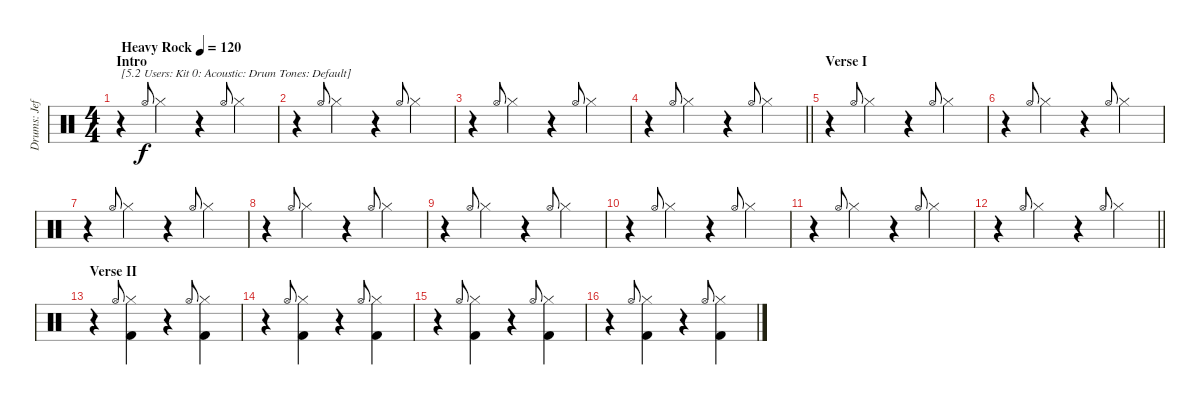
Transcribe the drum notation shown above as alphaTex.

\track ("Drums: Jeff" "Drums: Jef") {instrument percussion}
\staff {score}
\articulation defaults
\ts (4 4)
\section ("" "Intro")
\tempo (120 "Heavy Rock")
\clef neutral
\ks c
r.4{txt "[5.2 Users: Kit 0: Acoustic: Drum Tones: Default]" dy f} "Hi-Hat (open)".8{gr onbeat} "Hi-Hat (closed)".4 r.4 "Hi-Hat (open)".8{gr onbeat} "Hi-Hat (closed)".4 |
r.4 "Hi-Hat (open)".8{gr onbeat} "Hi-Hat (closed)".4 r.4 "Hi-Hat (open)".8{gr onbeat} "Hi-Hat (closed)".4 |
r.4 "Hi-Hat (open)".8{gr onbeat} "Hi-Hat (closed)".4 r.4 "Hi-Hat (open)".8{gr onbeat} "Hi-Hat (closed)".4 |
\barLineRight lightlight
r.4 "Hi-Hat (open)".8{gr onbeat} "Hi-Hat (closed)".4 r.4 "Hi-Hat (open)".8{gr onbeat} "Hi-Hat (closed)".4 |
\section ("" "Verse I")
r.4 "Hi-Hat (open)".8{gr onbeat} "Hi-Hat (closed)".4 r.4 "Hi-Hat (open)".8{gr onbeat} "Hi-Hat (closed)".4 |
r.4 "Hi-Hat (open)".8{gr onbeat} "Hi-Hat (closed)".4 r.4 "Hi-Hat (open)".8{gr onbeat} "Hi-Hat (closed)".4 |
r.4 "Hi-Hat (open)".8{gr onbeat} "Hi-Hat (closed)".4 r.4 "Hi-Hat (open)".8{gr onbeat} "Hi-Hat (closed)".4 |
r.4 "Hi-Hat (open)".8{gr onbeat} "Hi-Hat (closed)".4 r.4 "Hi-Hat (open)".8{gr onbeat} "Hi-Hat (closed)".4 |
r.4 "Hi-Hat (open)".8{gr onbeat} "Hi-Hat (closed)".4 r.4 "Hi-Hat (open)".8{gr onbeat} "Hi-Hat (closed)".4 |
r.4 "Hi-Hat (open)".8{gr onbeat} "Hi-Hat (closed)".4 r.4 "Hi-Hat (open)".8{gr onbeat} "Hi-Hat (closed)".4 |
r.4 "Hi-Hat (open)".8{gr onbeat} "Hi-Hat (closed)".4 r.4 "Hi-Hat (open)".8{gr onbeat} "Hi-Hat (closed)".4 |
\barLineRight lightlight
r.4 "Hi-Hat (open)".8{gr onbeat} "Hi-Hat (closed)".4 r.4 "Hi-Hat (open)".8{gr onbeat} "Hi-Hat (closed)".4 |
\section ("" "Verse II")
r.4 "Hi-Hat (open)".8{gr onbeat} ("Hi-Hat (closed)" "Kick (hit) 2").4 r.4 "Hi-Hat (open)".8{gr onbeat} ("Hi-Hat (closed)" "Kick (hit) 2").4 |
r.4 "Hi-Hat (open)".8{gr onbeat} ("Hi-Hat (closed)" "Kick (hit) 2").4 r.4 "Hi-Hat (open)".8{gr onbeat} ("Hi-Hat (closed)" "Kick (hit) 2").4 |
r.4 "Hi-Hat (open)".8{gr onbeat} ("Hi-Hat (closed)" "Kick (hit) 2").4 r.4 "Hi-Hat (open)".8{gr onbeat} ("Hi-Hat (closed)" "Kick (hit) 2").4 |
r.4 "Hi-Hat (open)".8{gr onbeat} ("Hi-Hat (closed)" "Kick (hit) 2").4 r.4 "Hi-Hat (open)".8{gr onbeat} ("Hi-Hat (closed)" "Kick (hit) 2").4
